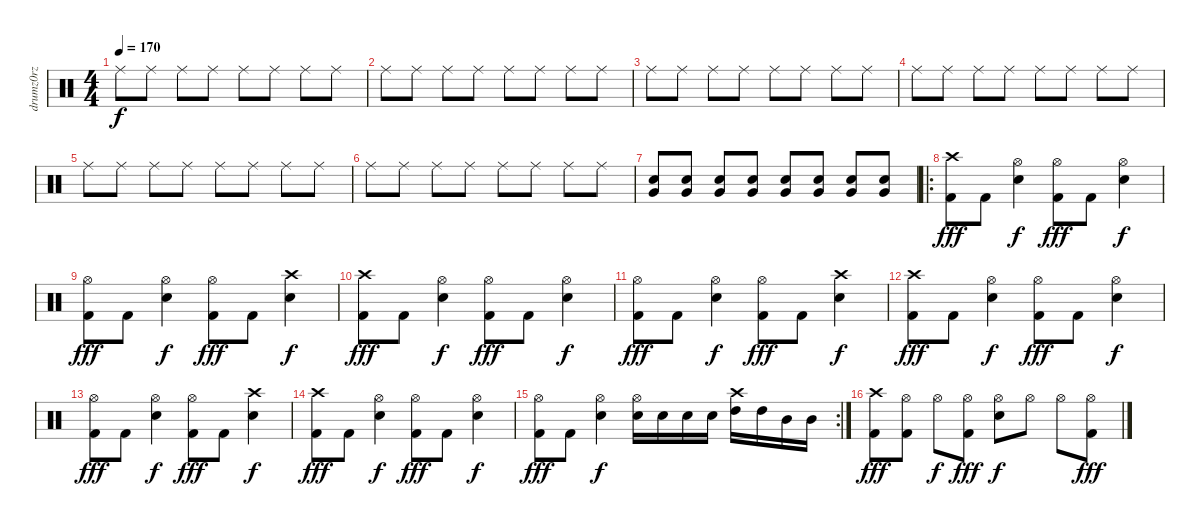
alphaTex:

\track ("drumz0rz" "drumz0rz") {instrument percussion}
\staff {score}
\articulation defaults
\ts (4 4)
\tempo 170
\clef neutral
\ks c "Ride (middle)".8{dy f} "Ride (middle)".8 "Ride (middle)".8 "Ride (middle)".8 "Ride (middle)".8 "Ride (middle)".8 "Ride (middle)".8 "Ride (middle)".8
|
"Ride (middle)".8 "Ride (middle)".8 "Ride (middle)".8 "Ride (middle)".8 "Ride (middle)".8 "Ride (middle)".8 "Ride (middle)".8 "Ride (middle)".8 |
"Ride (middle)".8 "Ride (middle)".8 "Ride (middle)".8 "Ride (middle)".8 "Ride (middle)".8 "Ride (middle)".8 "Ride (middle)".8 "Ride (middle)".8 |
"Ride (middle)".8 "Ride (middle)".8 "Ride (middle)".8 "Ride (middle)".8 "Ride (middle)".8 "Ride (middle)".8 "Ride (middle)".8 "Ride (middle)".8 |
"Ride (middle)".8 "Ride (middle)".8 "Ride (middle)".8 "Ride (middle)".8 "Ride (middle)".8 "Ride (middle)".8 "Ride (middle)".8 "Ride (middle)".8 |
"Ride (middle)".8 "Ride (middle)".8 "Ride (middle)".8 "Ride (middle)".8 "Ride (middle)".8 "Ride (middle)".8 "Ride (middle)".8 "Ride (middle)".8 |
("Very Low Tom (hit)" "Electric Snare (hit)").8 ("Very Low Tom (hit)" "Electric Snare (hit)").8 ("Very Low Tom (hit)" "Electric Snare (hit)").8 ("Very Low Tom (hit)" "Electric Snare (hit)").8 ("Very Low Tom (hit)" "Electric Snare (hit)").8 ("Very Low Tom (hit)" "Electric Snare (hit)").8 ("Very Low Tom (hit)" "Electric Snare (hit)").8 ("Very Low Tom (hit)" "Electric Snare (hit)").8 |
\ro
("Crash high (hit)" "Kick (hit) 2").8{dy fff} "Kick (hit) 2".8 ("Hi-Hat (open)" "Electric Snare (hit)").4{dy f} ("Hi-Hat (open)" "Kick (hit) 2").8{dy fff} "Kick (hit) 2".8 ("Hi-Hat (open)" "Electric Snare (hit)").4{dy f} |
("Hi-Hat (open)" "Kick (hit) 2").8{dy fff} "Kick (hit) 2".8 ("Hi-Hat (open)" "Electric Snare (hit)").4{dy f} ("Hi-Hat (open)" "Kick (hit) 2").8{dy fff} "Kick (hit) 2".8 ("Crash high (hit)" "Electric Snare (hit)").4{dy f} |
("Crash high (hit)" "Kick (hit) 2").8{dy fff} "Kick (hit) 2".8 ("Hi-Hat (open)" "Electric Snare (hit)").4{dy f} ("Hi-Hat (open)" "Kick (hit) 2").8{dy fff} "Kick (hit) 2".8 ("Hi-Hat (open)" "Electric Snare (hit)").4{dy f} |
("Hi-Hat (open)" "Kick (hit) 2").8{dy fff} "Kick (hit) 2".8 ("Hi-Hat (open)" "Electric Snare (hit)").4{dy f} ("Hi-Hat (open)" "Kick (hit) 2").8{dy fff} "Kick (hit) 2".8 ("Crash high (hit)" "Electric Snare (hit)").4{dy f} |
("Crash high (hit)" "Kick (hit) 2").8{dy fff} "Kick (hit) 2".8 ("Hi-Hat (open)" "Electric Snare (hit)").4{dy f} ("Hi-Hat (open)" "Kick (hit) 2").8{dy fff} "Kick (hit) 2".8 ("Hi-Hat (open)" "Electric Snare (hit)").4{dy f} |
("Hi-Hat (open)" "Kick (hit) 2").8{dy fff} "Kick (hit) 2".8 ("Hi-Hat (open)" "Electric Snare (hit)").4{dy f} ("Hi-Hat (open)" "Kick (hit) 2").8{dy fff} "Kick (hit) 2".8 ("Crash high (hit)" "Electric Snare (hit)").4{dy f} |
("Crash high (hit)" "Kick (hit) 2").8{dy fff} "Kick (hit) 2".8 ("Hi-Hat (open)" "Electric Snare (hit)").4{dy f} ("Hi-Hat (open)" "Kick (hit) 2").8{dy fff} "Kick (hit) 2".8 ("Hi-Hat (open)" "Electric Snare (hit)").4{dy f} |
\rc 2
("Hi-Hat (open)" "Kick (hit) 2").8{dy fff} "Kick (hit) 2".8 ("Hi-Hat (open)" "Electric Snare (hit)").4{dy f} ("Hi-Hat (open)" "Electric Snare (hit)").16 "Electric Snare (hit)".16 "Electric Snare (hit)".16 "Electric Snare (hit)".16 ("Crash high (hit)" "High Tom (hit)").16 "High Tom (hit)".16 "Mid Tom (hit)".16 "Mid Tom (hit)".16 |
("Crash high (hit)" "Kick (hit) 2").8{dy fff} ("Hi-Hat (open)" "Kick (hit) 2").8 "Hi-Hat (open)".8{dy f} ("Hi-Hat (open)" "Kick (hit) 2").8{dy fff} ("Hi-Hat (open)" "Electric Snare (hit)").8{dy f} "Hi-Hat (open)".8 "Hi-Hat (open)".8 ("Hi-Hat (open)" "Kick (hit) 2").8{dy fff}
